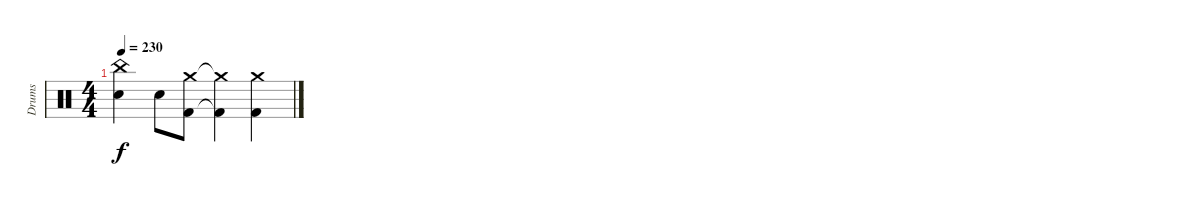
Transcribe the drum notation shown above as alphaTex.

\track ("Drums" "Drums") {instrument percussion}
\staff {score}
\articulation defaults
\ts (4 4)
\tempo 230
\clef neutral
\ks c
("China (hit)" "Snare (hit) 2").4{dy f} "Snare (hit) 2".8 ("Crash medium (hit)" "Kick (hit) 2").8 ("Crash medium (hit)"{t} "Kick (hit) 2"{t}).4 ("Crash medium (hit)" "Kick (hit) 2").4
